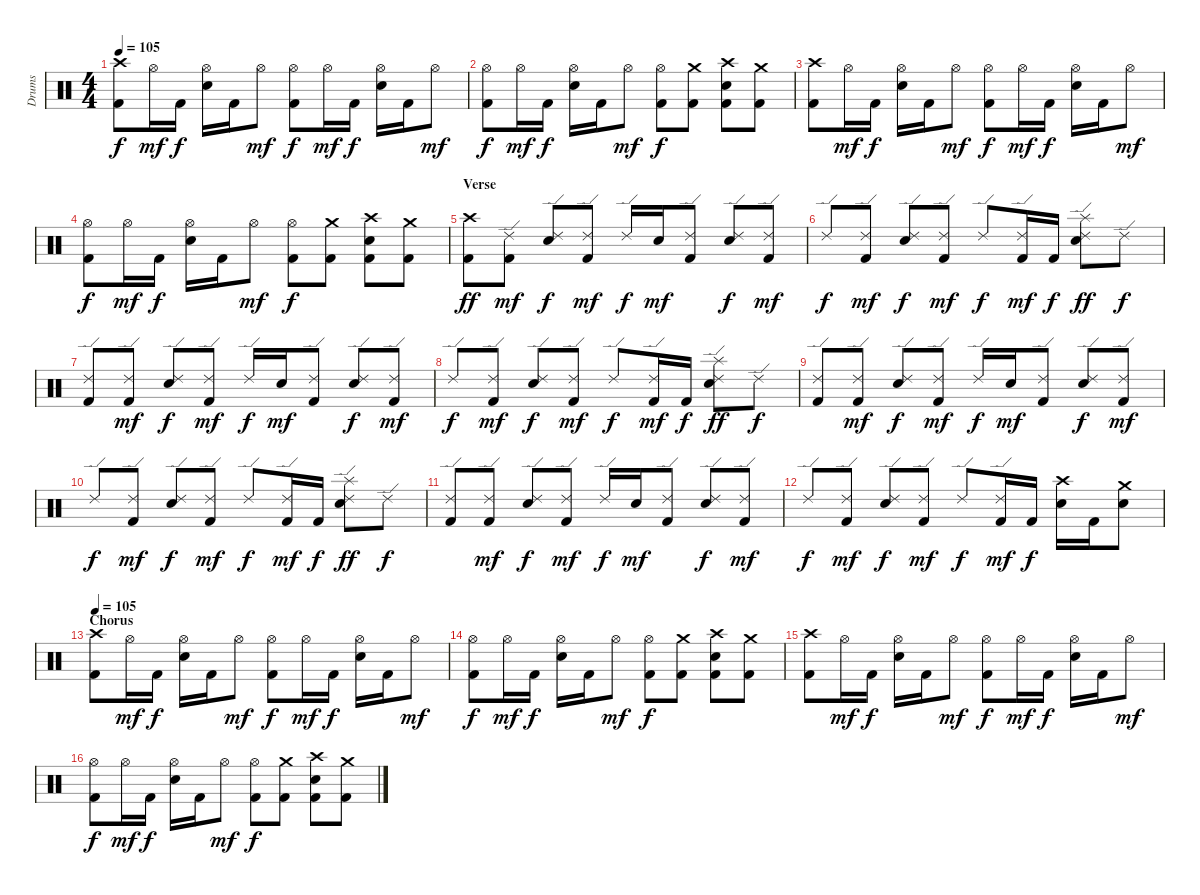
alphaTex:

\track ("Drums" "Drums") {instrument percussion}
\staff {score}
\articulation defaults
\ts (4 4)
\tempo 105
\clef neutral
\ks c
("Crash high (hit)" "Kick (hit) 2").8{dy f} "Hi-Hat (open)".16{dy mf} "Kick (hit) 2".16{dy f} ("Hi-Hat (open)" "Snare (hit) 2").16 "Kick (hit) 2".16 "Hi-Hat (open)".8{dy mf} ("Hi-Hat (open)" "Kick (hit) 2").8{dy f} "Hi-Hat (open)".16{dy mf} "Kick (hit) 2".16{dy f} ("Hi-Hat (open)" "Snare (hit) 2").16 "Kick (hit) 2".16 "Hi-Hat (open)".8{dy mf} |
("Hi-Hat (open)" "Kick (hit) 2").8{dy f} "Hi-Hat (open)".16{dy mf} "Kick (hit) 2".16{dy f} ("Hi-Hat (open)" "Snare (hit) 2").16 "Kick (hit) 2".16 "Hi-Hat (open)".8{dy mf} ("Hi-Hat (open)" "Kick (hit) 2").8{dy f} ("Crash medium (hit)" "Kick (hit) 2").8 ("Crash high (hit)" "Snare (hit) 2" "Kick (hit) 2").8 ("Crash medium (hit)" "Kick (hit) 2").8 |
("Crash high (hit)" "Kick (hit) 2").8 "Hi-Hat (open)".16{dy mf} "Kick (hit) 2".16{dy f} ("Hi-Hat (open)" "Snare (hit) 2").16 "Kick (hit) 2".16 "Hi-Hat (open)".8{dy mf} ("Hi-Hat (open)" "Kick (hit) 2").8{dy f} "Hi-Hat (open)".16{dy mf} "Kick (hit) 2".16{dy f} ("Hi-Hat (open)" "Snare (hit) 2").16 "Kick (hit) 2".16 "Hi-Hat (open)".8{dy mf} |
("Hi-Hat (open)" "Kick (hit) 2").8{dy f} "Hi-Hat (open)".16{dy mf} "Kick (hit) 2".16{dy f} ("Hi-Hat (open)" "Snare (hit) 2").16 "Kick (hit) 2".16 "Hi-Hat (open)".8{dy mf} ("Hi-Hat (open)" "Kick (hit) 2").8{dy f} ("Crash medium (hit)" "Kick (hit) 2").8 ("Crash high (hit)" "Snare (hit) 2" "Kick (hit) 2").8 ("Crash medium (hit)" "Kick (hit) 2").8 |
\section ("" "Verse")
("Crash high (hit)" "Kick (hit) 2").8{dy ff volume 11} ("Ride (edge) 2" "Kick (hit) 2").8{dy mf} ("Ride (edge) 2" "Snare (hit) 2").8{dy f} ("Ride (edge) 2" "Kick (hit) 2").8{dy mf} "Ride (edge) 2".16{dy f} "Snare (hit) 2".16{dy mf} ("Ride (edge) 2" "Kick (hit) 2").8 ("Ride (edge) 2" "Snare (hit) 2").8{dy f} ("Ride (edge) 2" "Kick (hit) 2").8{dy mf} |
"Ride (edge) 2".8{dy f} ("Ride (edge) 2" "Kick (hit) 2").8{dy mf} ("Ride (edge) 2" "Snare (hit) 2").8{dy f} ("Ride (edge) 2" "Kick (hit) 2").8{dy mf} "Ride (edge) 2".8{dy f} ("Ride (edge) 2" "Kick (hit) 2").16{dy mf} "Kick (hit) 2".16{dy f} ("Splash (hit)" "Ride (edge) 2" "Snare (hit) 2").8{dy ff} "Ride (edge) 2".8{dy f} |
("Ride (edge) 2" "Kick (hit) 2").8 ("Ride (edge) 2" "Kick (hit) 2").8{dy mf} ("Ride (edge) 2" "Snare (hit) 2").8{dy f} ("Ride (edge) 2" "Kick (hit) 2").8{dy mf} "Ride (edge) 2".16{dy f} "Snare (hit) 2".16{dy mf} ("Ride (edge) 2" "Kick (hit) 2").8 ("Ride (edge) 2" "Snare (hit) 2").8{dy f} ("Ride (edge) 2" "Kick (hit) 2").8{dy mf} |
"Ride (edge) 2".8{dy f} ("Ride (edge) 2" "Kick (hit) 2").8{dy mf} ("Ride (edge) 2" "Snare (hit) 2").8{dy f} ("Ride (edge) 2" "Kick (hit) 2").8{dy mf} "Ride (edge) 2".8{dy f} ("Ride (edge) 2" "Kick (hit) 2").16{dy mf} "Kick (hit) 2".16{dy f} ("Splash (hit)" "Ride (edge) 2" "Snare (hit) 2").8{dy ff} "Ride (edge) 2".8{dy f} |
("Ride (edge) 2" "Kick (hit) 2").8 ("Ride (edge) 2" "Kick (hit) 2").8{dy mf} ("Ride (edge) 2" "Snare (hit) 2").8{dy f} ("Ride (edge) 2" "Kick (hit) 2").8{dy mf} "Ride (edge) 2".16{dy f} "Snare (hit) 2".16{dy mf} ("Ride (edge) 2" "Kick (hit) 2").8 ("Ride (edge) 2" "Snare (hit) 2").8{dy f} ("Ride (edge) 2" "Kick (hit) 2").8{dy mf} |
"Ride (edge) 2".8{dy f} ("Ride (edge) 2" "Kick (hit) 2").8{dy mf} ("Ride (edge) 2" "Snare (hit) 2").8{dy f} ("Ride (edge) 2" "Kick (hit) 2").8{dy mf} "Ride (edge) 2".8{dy f} ("Ride (edge) 2" "Kick (hit) 2").16{dy mf} "Kick (hit) 2".16{dy f} ("Splash (hit)" "Ride (edge) 2" "Snare (hit) 2").8{dy ff} "Ride (edge) 2".8{dy f} |
("Ride (edge) 2" "Kick (hit) 2").8 ("Ride (edge) 2" "Kick (hit) 2").8{dy mf} ("Ride (edge) 2" "Snare (hit) 2").8{dy f} ("Ride (edge) 2" "Kick (hit) 2").8{dy mf} "Ride (edge) 2".16{dy f} "Snare (hit) 2".16{dy mf} ("Ride (edge) 2" "Kick (hit) 2").8 ("Ride (edge) 2" "Snare (hit) 2").8{dy f} ("Ride (edge) 2" "Kick (hit) 2").8{dy mf} |
"Ride (edge) 2".8{dy f} ("Ride (edge) 2" "Kick (hit) 2").8{dy mf} ("Ride (edge) 2" "Snare (hit) 2").8{dy f} ("Ride (edge) 2" "Kick (hit) 2").8{dy mf} "Ride (edge) 2".8{dy f} ("Ride (edge) 2" "Kick (hit) 2").16{dy mf} "Kick (hit) 2".16{dy f} ("Crash high (hit)" "Snare (hit) 2").16 "Kick (hit) 2".16 ("Crash medium (hit)" "Snare (hit) 2").8 |
\section ("" "Chorus")
\tempo 105
("Crash high (hit)" "Kick (hit) 2").8 "Hi-Hat (open)".16{dy mf} "Kick (hit) 2".16{dy f} ("Hi-Hat (open)" "Snare (hit) 2").16 "Kick (hit) 2".16 "Hi-Hat (open)".8{dy mf} ("Hi-Hat (open)" "Kick (hit) 2").8{dy f} "Hi-Hat (open)".16{dy mf} "Kick (hit) 2".16{dy f} ("Hi-Hat (open)" "Snare (hit) 2").16 "Kick (hit) 2".16 "Hi-Hat (open)".8{dy mf} |
("Hi-Hat (open)" "Kick (hit) 2").8{dy f} "Hi-Hat (open)".16{dy mf} "Kick (hit) 2".16{dy f} ("Hi-Hat (open)" "Snare (hit) 2").16 "Kick (hit) 2".16 "Hi-Hat (open)".8{dy mf} ("Hi-Hat (open)" "Kick (hit) 2").8{dy f} ("Crash medium (hit)" "Kick (hit) 2").8 ("Crash high (hit)" "Snare (hit) 2" "Kick (hit) 2").8 ("Crash medium (hit)" "Kick (hit) 2").8 |
("Crash high (hit)" "Kick (hit) 2").8 "Hi-Hat (open)".16{dy mf} "Kick (hit) 2".16{dy f} ("Hi-Hat (open)" "Snare (hit) 2").16 "Kick (hit) 2".16 "Hi-Hat (open)".8{dy mf} ("Hi-Hat (open)" "Kick (hit) 2").8{dy f} "Hi-Hat (open)".16{dy mf} "Kick (hit) 2".16{dy f} ("Hi-Hat (open)" "Snare (hit) 2").16 "Kick (hit) 2".16 "Hi-Hat (open)".8{dy mf} |
("Hi-Hat (open)" "Kick (hit) 2").8{dy f} "Hi-Hat (open)".16{dy mf} "Kick (hit) 2".16{dy f} ("Hi-Hat (open)" "Snare (hit) 2").16 "Kick (hit) 2".16 "Hi-Hat (open)".8{dy mf} ("Hi-Hat (open)" "Kick (hit) 2").8{dy f} ("Crash medium (hit)" "Kick (hit) 2").8 ("Crash high (hit)" "Snare (hit) 2" "Kick (hit) 2").8 ("Crash medium (hit)" "Kick (hit) 2").8
